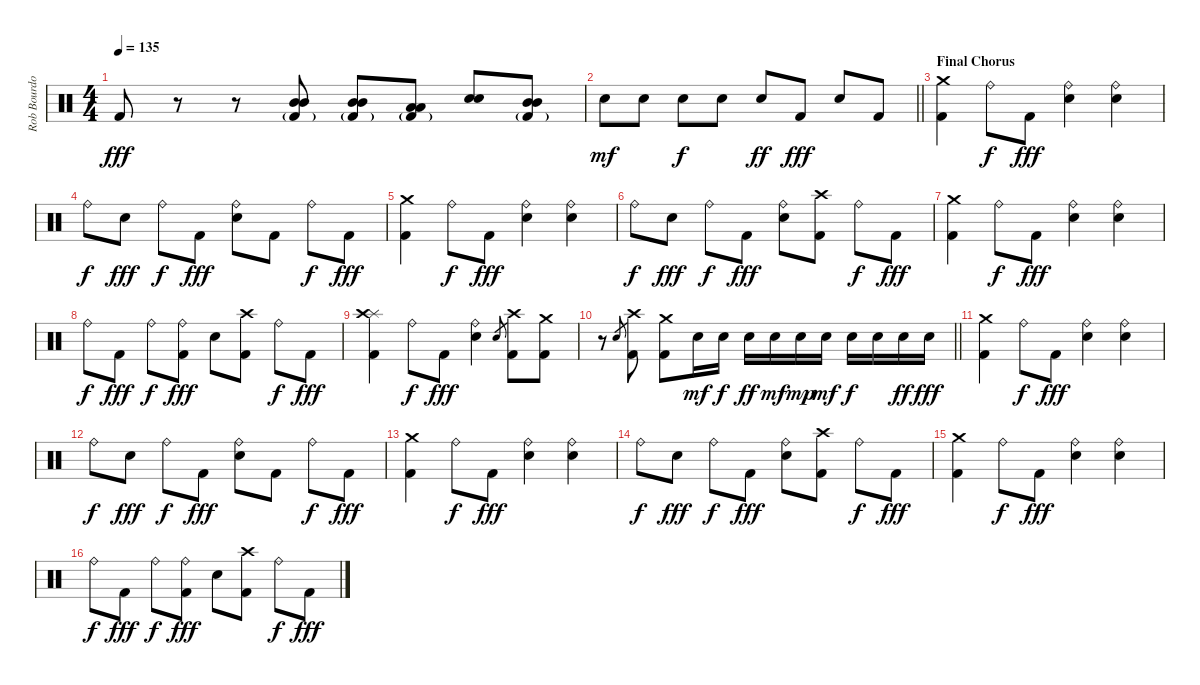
\track ("Rob Bourdon - Beats & Drums" "Rob Bourdo") {instrument percussion}
\staff {score}
\articulation defaults
\ts (4 4)
\tempo 135
\clef neutral
\ks c "Kick (hit) 2".8{dy fff}
r.8 r.8 ("Mid Tom (hit)" "Mid Tom (hit)" "Kick (hit) 2"{g}).8 ("Mid Tom (hit)" "Mid Tom (hit)" "Kick (hit) 2"{g}).8 ("Low Tom (hit)" "Low Tom (hit)" "Kick (hit) 2"{g}).8 ("Electric Snare (hit)" "Electric Snare (hit)").8 ("Mid Tom (hit)" "Mid Tom (hit)" "Kick (hit) 2"{g}).8 |
\barLineRight lightlight "Electric Snare (hit)".8{dy mf} "Electric Snare (hit)".8 "Electric Snare (hit)".8{dy f} "Electric Snare (hit)".8 "Electric Snare (hit)".8{dy ff} "Kick (hit) 2".8{dy fff} "Electric Snare (hit)".8 "Kick (hit) 2".8
|
\section ("" "Final Chorus")
("Crash medium (hit)" "Kick (hit) 2").4 "Ride (bell)".8{dy f} "Kick (hit) 2".8{dy fff} ("Ride (bell)" "Electric Snare (hit)").4 ("Ride (bell)" "Electric Snare (hit)").4 |
"Ride (bell)".8{dy f} "Electric Snare (hit)".8{dy fff} "Ride (bell)".8{dy f} "Kick (hit) 2".8{dy fff} ("Ride (bell)" "Electric Snare (hit)").8 "Kick (hit) 2".8 "Ride (bell)".8{dy f} "Kick (hit) 2".8{dy fff} |
("Crash medium (hit)" "Kick (hit) 2").4 "Ride (bell)".8{dy f} "Kick (hit) 2".8{dy fff} ("Ride (bell)" "Electric Snare (hit)").4 ("Ride (bell)" "Electric Snare (hit)").4 |
"Ride (bell)".8{dy f} "Electric Snare (hit)".8{dy fff} "Ride (bell)".8{dy f} "Kick (hit) 2".8{dy fff} ("Ride (bell)" "Electric Snare (hit)").8 ("Crash high (hit)" "Kick (hit) 2").8 "Ride (bell)".8{dy f} "Kick (hit) 2".8{dy fff} |
("Crash medium (hit)" "Kick (hit) 2").4 "Ride (bell)".8{dy f} "Kick (hit) 2".8{dy fff} ("Ride (bell)" "Electric Snare (hit)").4 ("Ride (bell)" "Electric Snare (hit)").4 |
"Ride (bell)".8{dy f} "Kick (hit) 2".8{dy fff} "Ride (bell)".8{dy f} ("Ride (bell)" "Kick (hit) 2").8{dy fff} "Electric Snare (hit)".8 ("Crash high (hit)" "Kick (hit) 2").8 "Ride (bell)".8{dy f} "Kick (hit) 2".8{dy fff} |
("Splash (hit)" "Crash high (hit)" "Kick (hit) 2").4 "Ride (bell)".8{dy f} "Kick (hit) 2".8{dy fff} ("Ride (bell)" "Electric Snare (hit)").4 "Electric Snare (hit)".8{gr} ("Crash high (hit)" "Kick (hit) 2").8 ("Crash medium (hit)" "Kick (hit) 2").8 |
\barLineRight lightlight
r.8 "Electric Snare (hit)".8{gr} ("Crash high (hit)" "Kick (hit) 2").8 ("Crash medium (hit)" "Kick (hit) 2").8 "Electric Snare (hit)".16{dy mf} "Electric Snare (hit)".16{dy f} "Electric Snare (hit)".16{dy ff} "Electric Snare (hit)".16{dy mf} "Electric Snare (hit)".16{dy mp} "Electric Snare (hit)".16{dy mf} "Electric Snare (hit)".16{dy f} "Electric Snare (hit)".16 "Electric Snare (hit)".16{dy ff} "Electric Snare (hit)".16{dy fff} |
("Crash medium (hit)" "Kick (hit) 2").4 "Ride (bell)".8{dy f} "Kick (hit) 2".8{dy fff} ("Ride (bell)" "Electric Snare (hit)").4 ("Ride (bell)" "Electric Snare (hit)").4 |
"Ride (bell)".8{dy f} "Electric Snare (hit)".8{dy fff} "Ride (bell)".8{dy f} "Kick (hit) 2".8{dy fff} ("Ride (bell)" "Electric Snare (hit)").8 "Kick (hit) 2".8 "Ride (bell)".8{dy f} "Kick (hit) 2".8{dy fff} |
("Crash medium (hit)" "Kick (hit) 2").4 "Ride (bell)".8{dy f} "Kick (hit) 2".8{dy fff} ("Ride (bell)" "Electric Snare (hit)").4 ("Ride (bell)" "Electric Snare (hit)").4 |
"Ride (bell)".8{dy f} "Electric Snare (hit)".8{dy fff} "Ride (bell)".8{dy f} "Kick (hit) 2".8{dy fff} ("Ride (bell)" "Electric Snare (hit)").8 ("Crash high (hit)" "Kick (hit) 2").8 "Ride (bell)".8{dy f} "Kick (hit) 2".8{dy fff} |
("Crash medium (hit)" "Kick (hit) 2").4 "Ride (bell)".8{dy f} "Kick (hit) 2".8{dy fff} ("Ride (bell)" "Electric Snare (hit)").4 ("Ride (bell)" "Electric Snare (hit)").4 |
"Ride (bell)".8{dy f} "Kick (hit) 2".8{dy fff} "Ride (bell)".8{dy f} ("Ride (bell)" "Kick (hit) 2").8{dy fff} "Electric Snare (hit)".8 ("Crash high (hit)" "Kick (hit) 2").8 "Ride (bell)".8{dy f} "Kick (hit) 2".8{dy fff}
